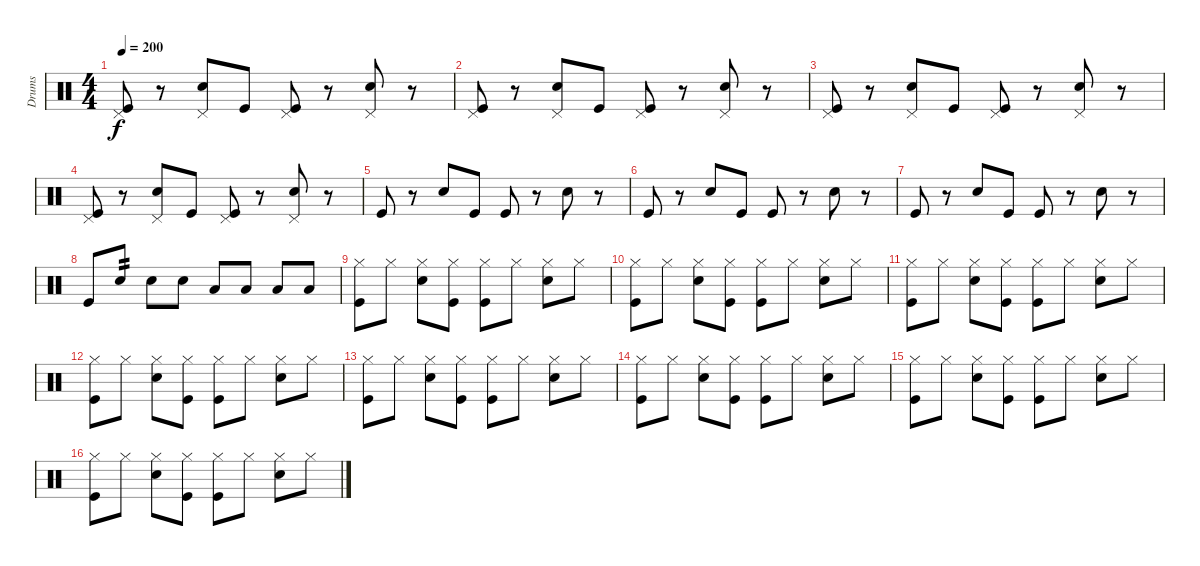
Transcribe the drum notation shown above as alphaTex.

\track ("Drums" "Drums") {instrument percussion}
\staff {score}
\articulation defaults
\ts (4 4)
\tempo 200
\clef neutral
\ks c
("Pedal Hi-Hat (hit)" "Kick (hit)").8{dy f} r.8 ("Pedal Hi-Hat (hit)" "Snare (hit) 2").8 "Kick (hit)".8 ("Pedal Hi-Hat (hit)" "Kick (hit)").8 r.8 ("Pedal Hi-Hat (hit)" "Snare (hit) 2").8 r.8 |
("Pedal Hi-Hat (hit)" "Kick (hit)").8 r.8 ("Pedal Hi-Hat (hit)" "Snare (hit) 2").8 "Kick (hit)".8 ("Pedal Hi-Hat (hit)" "Kick (hit)").8 r.8 ("Pedal Hi-Hat (hit)" "Snare (hit) 2").8 r.8 |
("Pedal Hi-Hat (hit)" "Kick (hit)").8 r.8 ("Pedal Hi-Hat (hit)" "Snare (hit) 2").8 "Kick (hit)".8 ("Pedal Hi-Hat (hit)" "Kick (hit)").8 r.8 ("Pedal Hi-Hat (hit)" "Snare (hit) 2").8 r.8 |
("Pedal Hi-Hat (hit)" "Kick (hit)").8 r.8 ("Pedal Hi-Hat (hit)" "Snare (hit) 2").8 "Kick (hit)".8 ("Pedal Hi-Hat (hit)" "Kick (hit)").8 r.8 ("Pedal Hi-Hat (hit)" "Snare (hit) 2").8 r.8 |
"Kick (hit)".8 r.8 "Snare (hit) 2".8 "Kick (hit)".8 "Kick (hit)".8 r.8 "Snare (hit) 2".8 r.8 |
"Kick (hit)".8 r.8 "Snare (hit) 2".8 "Kick (hit)".8 "Kick (hit)".8 r.8 "Snare (hit) 2".8 r.8 |
"Kick (hit)".8 r.8 "Snare (hit) 2".8 "Kick (hit)".8 "Kick (hit)".8 r.8 "Snare (hit) 2".8 r.8 |
"Kick (hit)".8 "Snare (hit) 2".8{tp 2} "Snare (hit) 2".8 "Snare (hit) 2".8 "Low Tom (hit)".8 "Low Tom (hit)".8 "Low Floor Tom (hit)".8 "Low Floor Tom (hit)".8 |
("Hi-Hat (closed)" "Kick (hit)").8 "Hi-Hat (closed)".8 ("Hi-Hat (closed)" "Snare (hit) 2").8 ("Hi-Hat (closed)" "Kick (hit)").8 ("Hi-Hat (closed)" "Kick (hit)").8 "Hi-Hat (closed)".8 ("Hi-Hat (closed)" "Snare (hit) 2").8 "Hi-Hat (closed)".8 |
("Hi-Hat (closed)" "Kick (hit)").8 "Hi-Hat (closed)".8 ("Hi-Hat (closed)" "Snare (hit) 2").8 ("Hi-Hat (closed)" "Kick (hit)").8 ("Hi-Hat (closed)" "Kick (hit)").8 "Hi-Hat (closed)".8 ("Hi-Hat (closed)" "Snare (hit) 2").8 "Hi-Hat (closed)".8 |
("Hi-Hat (closed)" "Kick (hit)").8 "Hi-Hat (closed)".8 ("Hi-Hat (closed)" "Snare (hit) 2").8 ("Hi-Hat (closed)" "Kick (hit)").8 ("Hi-Hat (closed)" "Kick (hit)").8 "Hi-Hat (closed)".8 ("Hi-Hat (closed)" "Snare (hit) 2").8 "Hi-Hat (closed)".8 |
("Hi-Hat (closed)" "Kick (hit)").8 "Hi-Hat (closed)".8 ("Hi-Hat (closed)" "Snare (hit) 2").8 ("Hi-Hat (closed)" "Kick (hit)").8 ("Hi-Hat (closed)" "Kick (hit)").8 "Hi-Hat (closed)".8 ("Hi-Hat (closed)" "Snare (hit) 2").8 "Hi-Hat (closed)".8 |
("Hi-Hat (closed)" "Kick (hit)").8 "Hi-Hat (closed)".8 ("Hi-Hat (closed)" "Snare (hit) 2").8 ("Hi-Hat (closed)" "Kick (hit)").8 ("Hi-Hat (closed)" "Kick (hit)").8 "Hi-Hat (closed)".8 ("Hi-Hat (closed)" "Snare (hit) 2").8 "Hi-Hat (closed)".8 |
("Hi-Hat (closed)" "Kick (hit)").8 "Hi-Hat (closed)".8 ("Hi-Hat (closed)" "Snare (hit) 2").8 ("Hi-Hat (closed)" "Kick (hit)").8 ("Hi-Hat (closed)" "Kick (hit)").8 "Hi-Hat (closed)".8 ("Hi-Hat (closed)" "Snare (hit) 2").8 "Hi-Hat (closed)".8 |
("Hi-Hat (closed)" "Kick (hit)").8 "Hi-Hat (closed)".8 ("Hi-Hat (closed)" "Snare (hit) 2").8 ("Hi-Hat (closed)" "Kick (hit)").8 ("Hi-Hat (closed)" "Kick (hit)").8 "Hi-Hat (closed)".8 ("Hi-Hat (closed)" "Snare (hit) 2").8 "Hi-Hat (closed)".8 |
("Hi-Hat (closed)" "Kick (hit)").8 "Hi-Hat (closed)".8 ("Hi-Hat (closed)" "Snare (hit) 2").8 ("Hi-Hat (closed)" "Kick (hit)").8 ("Hi-Hat (closed)" "Kick (hit)").8 "Hi-Hat (closed)".8 ("Hi-Hat (closed)" "Snare (hit) 2").8 "Hi-Hat (closed)".8
